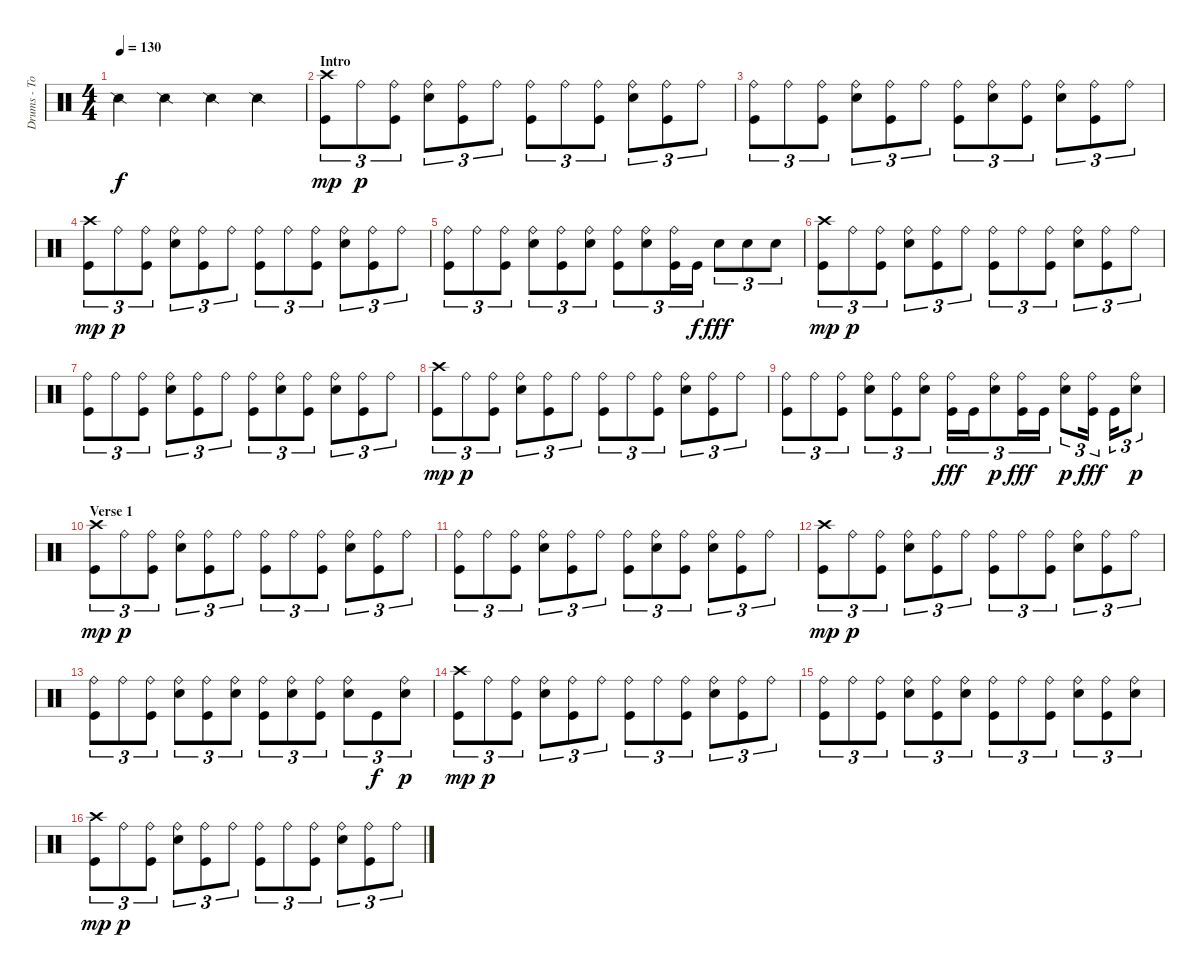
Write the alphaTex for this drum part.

\track ("Drums - Tomas" "Drums - To") {instrument percussion}
\staff {score}
\articulation defaults
\ts (4 4)
\tempo 130
\clef neutral
\ks c "Snare (side stick) 2".4{dy f} "Snare (side stick) 2".4 "Snare (side stick) 2".4 "Snare (side stick) 2".4
|
\section ("" "Intro")
("Crash high (hit)" "Kick (hit)").8{tu (3 2) dy mp} "Ride (bell)".8{tu (3 2) dy p} ("Ride (bell)" "Kick (hit)").8{tu (3 2)} ("Ride (bell)" "Electric Snare (hit)").8{tu (3 2)} ("Ride (bell)" "Kick (hit)").8{tu (3 2)} "Ride (bell)".8{tu (3 2)} ("Ride (bell)" "Kick (hit)").8{tu (3 2)} "Ride (bell)".8{tu (3 2)} ("Ride (bell)" "Kick (hit)").8{tu (3 2)} ("Ride (bell)" "Electric Snare (hit)").8{tu (3 2)} ("Ride (bell)" "Kick (hit)").8{tu (3 2)} "Ride (bell)".8{tu (3 2)} |
("Ride (bell)" "Kick (hit)").8{tu (3 2)} "Ride (bell)".8{tu (3 2)} ("Ride (bell)" "Kick (hit)").8{tu (3 2)} ("Ride (bell)" "Electric Snare (hit)").8{tu (3 2)} ("Ride (bell)" "Kick (hit)").8{tu (3 2)} "Ride (bell)".8{tu (3 2)} ("Ride (bell)" "Kick (hit)").8{tu (3 2)} ("Ride (bell)" "Electric Snare (hit)").8{tu (3 2)} ("Ride (bell)" "Kick (hit)").8{tu (3 2)} ("Ride (bell)" "Electric Snare (hit)").8{tu (3 2)} ("Ride (bell)" "Kick (hit)").8{tu (3 2)} "Ride (bell)".8{tu (3 2)} |
("Crash high (hit)" "Kick (hit)").8{tu (3 2) dy mp} "Ride (bell)".8{tu (3 2) dy p} ("Ride (bell)" "Kick (hit)").8{tu (3 2)} ("Ride (bell)" "Electric Snare (hit)").8{tu (3 2)} ("Ride (bell)" "Kick (hit)").8{tu (3 2)} "Ride (bell)".8{tu (3 2)} ("Ride (bell)" "Kick (hit)").8{tu (3 2)} "Ride (bell)".8{tu (3 2)} ("Ride (bell)" "Kick (hit)").8{tu (3 2)} ("Ride (bell)" "Electric Snare (hit)").8{tu (3 2)} ("Ride (bell)" "Kick (hit)").8{tu (3 2)} "Ride (bell)".8{tu (3 2)} |
("Ride (bell)" "Kick (hit)").8{tu (3 2)} "Ride (bell)".8{tu (3 2)} ("Ride (bell)" "Kick (hit)").8{tu (3 2)} ("Ride (bell)" "Electric Snare (hit)").8{tu (3 2)} ("Ride (bell)" "Kick (hit)").8{tu (3 2)} ("Ride (bell)" "Electric Snare (hit)").8{tu (3 2)} ("Ride (bell)" "Kick (hit)").8{tu (3 2)} ("Ride (bell)" "Electric Snare (hit)").8{tu (3 2)} ("Ride (bell)" "Kick (hit)").16{tu (3 2)} "Kick (hit)".16{tu (3 2) dy f} "Electric Snare (hit)".8{tu (3 2) dy fff} "Electric Snare (hit)".8{tu (3 2)} "Electric Snare (hit)".8{tu (3 2)} |
("Crash high (hit)" "Kick (hit)").8{tu (3 2) dy mp} "Ride (bell)".8{tu (3 2) dy p} ("Ride (bell)" "Kick (hit)").8{tu (3 2)} ("Ride (bell)" "Electric Snare (hit)").8{tu (3 2)} ("Ride (bell)" "Kick (hit)").8{tu (3 2)} "Ride (bell)".8{tu (3 2)} ("Ride (bell)" "Kick (hit)").8{tu (3 2)} "Ride (bell)".8{tu (3 2)} ("Ride (bell)" "Kick (hit)").8{tu (3 2)} ("Ride (bell)" "Electric Snare (hit)").8{tu (3 2)} ("Ride (bell)" "Kick (hit)").8{tu (3 2)} "Ride (bell)".8{tu (3 2)} |
("Ride (bell)" "Kick (hit)").8{tu (3 2)} "Ride (bell)".8{tu (3 2)} ("Ride (bell)" "Kick (hit)").8{tu (3 2)} ("Ride (bell)" "Electric Snare (hit)").8{tu (3 2)} ("Ride (bell)" "Kick (hit)").8{tu (3 2)} "Ride (bell)".8{tu (3 2)} ("Ride (bell)" "Kick (hit)").8{tu (3 2)} ("Ride (bell)" "Electric Snare (hit)").8{tu (3 2)} ("Ride (bell)" "Kick (hit)").8{tu (3 2)} ("Ride (bell)" "Electric Snare (hit)").8{tu (3 2)} ("Ride (bell)" "Kick (hit)").8{tu (3 2)} "Ride (bell)".8{tu (3 2)} |
("Crash high (hit)" "Kick (hit)").8{tu (3 2) dy mp} "Ride (bell)".8{tu (3 2) dy p} ("Ride (bell)" "Kick (hit)").8{tu (3 2)} ("Ride (bell)" "Electric Snare (hit)").8{tu (3 2)} ("Ride (bell)" "Kick (hit)").8{tu (3 2)} "Ride (bell)".8{tu (3 2)} ("Ride (bell)" "Kick (hit)").8{tu (3 2)} "Ride (bell)".8{tu (3 2)} ("Ride (bell)" "Kick (hit)").8{tu (3 2)} ("Ride (bell)" "Electric Snare (hit)").8{tu (3 2)} ("Ride (bell)" "Kick (hit)").8{tu (3 2)} "Ride (bell)".8{tu (3 2)} |
("Ride (bell)" "Kick (hit)").8{tu (3 2)} "Ride (bell)".8{tu (3 2)} ("Ride (bell)" "Kick (hit)").8{tu (3 2)} ("Ride (bell)" "Electric Snare (hit)").8{tu (3 2)} ("Ride (bell)" "Kick (hit)").8{tu (3 2)} ("Ride (bell)" "Electric Snare (hit)").8{tu (3 2)} ("Ride (bell)" "Kick (hit)").16{tu (3 2) dy fff} "Kick (hit)".16{tu (3 2)} ("Ride (bell)" "Electric Snare (hit)").8{tu (3 2) dy p} ("Ride (bell)" "Kick (hit)").16{tu (3 2) dy fff} "Kick (hit)".16{tu (3 2)} ("Ride (bell)" "Electric Snare (hit)").8{tu (3 2) dy p} ("Ride (bell)" "Kick (hit)").16{tu (3 2) dy fff} "Kick (hit)".16{tu (3 2)} ("Ride (bell)" "Electric Snare (hit)").8{tu (3 2) dy p} |
\section ("" "Verse 1")
("Crash high (hit)" "Kick (hit)").8{tu (3 2) dy mp} "Ride (bell)".8{tu (3 2) dy p} ("Ride (bell)" "Kick (hit)").8{tu (3 2)} ("Ride (bell)" "Electric Snare (hit)").8{tu (3 2)} ("Ride (bell)" "Kick (hit)").8{tu (3 2)} "Ride (bell)".8{tu (3 2)} ("Ride (bell)" "Kick (hit)").8{tu (3 2)} "Ride (bell)".8{tu (3 2)} ("Ride (bell)" "Kick (hit)").8{tu (3 2)} ("Ride (bell)" "Electric Snare (hit)").8{tu (3 2)} ("Ride (bell)" "Kick (hit)").8{tu (3 2)} "Ride (bell)".8{tu (3 2)} |
("Ride (bell)" "Kick (hit)").8{tu (3 2)} "Ride (bell)".8{tu (3 2)} ("Ride (bell)" "Kick (hit)").8{tu (3 2)} ("Ride (bell)" "Electric Snare (hit)").8{tu (3 2)} ("Ride (bell)" "Kick (hit)").8{tu (3 2)} "Ride (bell)".8{tu (3 2)} ("Ride (bell)" "Kick (hit)").8{tu (3 2)} ("Ride (bell)" "Electric Snare (hit)").8{tu (3 2)} ("Ride (bell)" "Kick (hit)").8{tu (3 2)} ("Ride (bell)" "Electric Snare (hit)").8{tu (3 2)} ("Ride (bell)" "Kick (hit)").8{tu (3 2)} "Ride (bell)".8{tu (3 2)} |
("Crash high (hit)" "Kick (hit)").8{tu (3 2) dy mp} "Ride (bell)".8{tu (3 2) dy p} ("Ride (bell)" "Kick (hit)").8{tu (3 2)} ("Ride (bell)" "Electric Snare (hit)").8{tu (3 2)} ("Ride (bell)" "Kick (hit)").8{tu (3 2)} "Ride (bell)".8{tu (3 2)} ("Ride (bell)" "Kick (hit)").8{tu (3 2)} "Ride (bell)".8{tu (3 2)} ("Ride (bell)" "Kick (hit)").8{tu (3 2)} ("Ride (bell)" "Electric Snare (hit)").8{tu (3 2)} ("Ride (bell)" "Kick (hit)").8{tu (3 2)} "Ride (bell)".8{tu (3 2)} |
("Ride (bell)" "Kick (hit)").8{tu (3 2)} "Ride (bell)".8{tu (3 2)} ("Ride (bell)" "Kick (hit)").8{tu (3 2)} ("Ride (bell)" "Electric Snare (hit)").8{tu (3 2)} ("Ride (bell)" "Kick (hit)").8{tu (3 2)} ("Ride (bell)" "Electric Snare (hit)").8{tu (3 2)} ("Ride (bell)" "Kick (hit)").8{tu (3 2)} ("Ride (bell)" "Electric Snare (hit)").8{tu (3 2)} ("Ride (bell)" "Kick (hit)").8{tu (3 2)} ("Ride (bell)" "Electric Snare (hit)").8{tu (3 2)} "Kick (hit)".8{tu (3 2) dy f} ("Ride (bell)" "Electric Snare (hit)").8{tu (3 2) dy p} |
("Crash high (hit)" "Kick (hit)").8{tu (3 2) dy mp} "Ride (bell)".8{tu (3 2) dy p} ("Ride (bell)" "Kick (hit)").8{tu (3 2)} ("Ride (bell)" "Electric Snare (hit)").8{tu (3 2)} ("Ride (bell)" "Kick (hit)").8{tu (3 2)} "Ride (bell)".8{tu (3 2)} ("Ride (bell)" "Kick (hit)").8{tu (3 2)} "Ride (bell)".8{tu (3 2)} ("Ride (bell)" "Kick (hit)").8{tu (3 2)} ("Ride (bell)" "Electric Snare (hit)").8{tu (3 2)} ("Ride (bell)" "Kick (hit)").8{tu (3 2)} "Ride (bell)".8{tu (3 2)} |
("Ride (bell)" "Kick (hit)").8{tu (3 2)} "Ride (bell)".8{tu (3 2)} ("Ride (bell)" "Kick (hit)").8{tu (3 2)} ("Ride (bell)" "Electric Snare (hit)").8{tu (3 2)} ("Ride (bell)" "Kick (hit)").8{tu (3 2)} ("Ride (bell)" "Electric Snare (hit)").8{tu (3 2)} ("Ride (bell)" "Kick (hit)").8{tu (3 2)} "Ride (bell)".8{tu (3 2)} ("Ride (bell)" "Kick (hit)").8{tu (3 2)} ("Ride (bell)" "Electric Snare (hit)").8{tu (3 2)} ("Ride (bell)" "Kick (hit)").8{tu (3 2)} ("Ride (bell)" "Electric Snare (hit)").8{tu (3 2)} |
("Crash high (hit)" "Kick (hit)").8{tu (3 2) dy mp} "Ride (bell)".8{tu (3 2) dy p} ("Ride (bell)" "Kick (hit)").8{tu (3 2)} ("Ride (bell)" "Electric Snare (hit)").8{tu (3 2)} ("Ride (bell)" "Kick (hit)").8{tu (3 2)} "Ride (bell)".8{tu (3 2)} ("Ride (bell)" "Kick (hit)").8{tu (3 2)} "Ride (bell)".8{tu (3 2)} ("Ride (bell)" "Kick (hit)").8{tu (3 2)} ("Ride (bell)" "Electric Snare (hit)").8{tu (3 2)} ("Ride (bell)" "Kick (hit)").8{tu (3 2)} "Ride (bell)".8{tu (3 2)}
